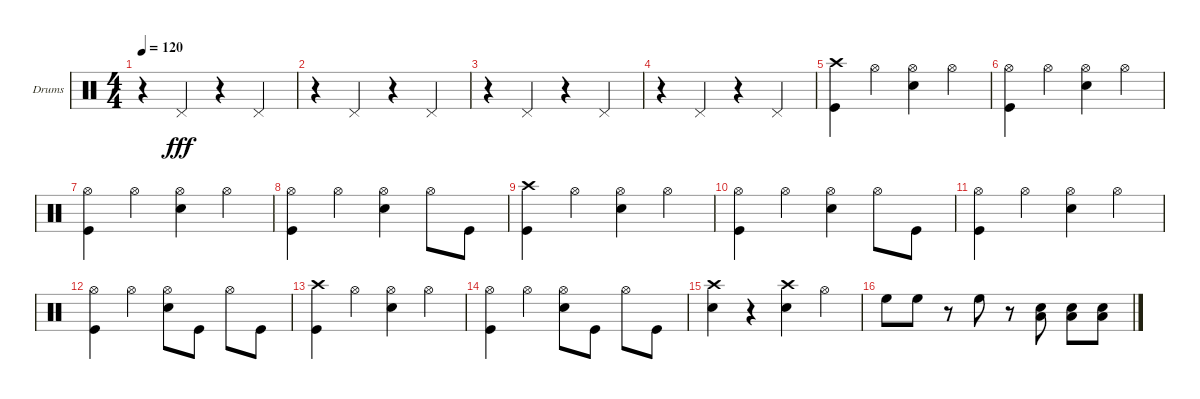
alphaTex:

\bracketExtendMode groupsimilarinstruments
\firstSystemTrackNameOrientation horizontal
\otherSystemsTrackNameOrientation horizontal
\track ("Drumkit" "Drums") {instrument percussion}
\staff {score}
\articulation defaults
\ts (4 4)
\tempo 120
\clef neutral
\ks c
r.4{dy fff} "Pedal Hi-Hat (hit)".4 r.4 "Pedal Hi-Hat (hit)".4 |
r.4 "Pedal Hi-Hat (hit)".4 r.4 "Pedal Hi-Hat (hit)".4 |
r.4 "Pedal Hi-Hat (hit)".4 r.4 "Pedal Hi-Hat (hit)".4 |
r.4 "Pedal Hi-Hat (hit)".4 r.4 "Pedal Hi-Hat (hit)".4 |
("Kick (hit)" "Crash high (hit)").4 "Hi-Hat (open)".4 ("Snare (hit) 2" "Hi-Hat (open)").4 "Hi-Hat (open)".4 |
("Kick (hit)" "Hi-Hat (open)").4 "Hi-Hat (open)".4 ("Snare (hit) 2" "Hi-Hat (open)").4 "Hi-Hat (open)".4 |
("Kick (hit)" "Hi-Hat (open)").4 "Hi-Hat (open)".4 ("Snare (hit) 2" "Hi-Hat (open)").4 "Hi-Hat (open)".4 |
("Kick (hit)" "Hi-Hat (open)").4 "Hi-Hat (open)".4 ("Snare (hit) 2" "Hi-Hat (open)").4 "Hi-Hat (open)".8 "Kick (hit)".8 |
("Crash high (hit)" "Kick (hit)").4 "Hi-Hat (open)".4 ("Snare (hit) 2" "Hi-Hat (open)").4 "Hi-Hat (open)".4 |
("Kick (hit)" "Hi-Hat (open)").4 "Hi-Hat (open)".4 ("Snare (hit) 2" "Hi-Hat (open)").4 "Hi-Hat (open)".8 "Kick (hit)".8 |
("Kick (hit)" "Hi-Hat (open)").4 "Hi-Hat (open)".4 ("Snare (hit) 2" "Hi-Hat (open)").4 "Hi-Hat (open)".4 |
("Kick (hit)" "Hi-Hat (open)").4 "Hi-Hat (open)".4 ("Snare (hit) 2" "Hi-Hat (open)").8 "Kick (hit)".8 "Hi-Hat (open)".8 "Kick (hit)".8 |
("Crash high (hit)" "Kick (hit)").4 "Hi-Hat (open)".4 ("Snare (hit) 2" "Hi-Hat (open)").4 "Hi-Hat (open)".4 |
("Kick (hit)" "Hi-Hat (open)").4 "Hi-Hat (open)".4 ("Snare (hit) 2" "Hi-Hat (open)").8 "Kick (hit)".8 "Hi-Hat (open)".8 "Kick (hit)".8 |
("Snare (hit) 2" "Crash high (hit)").4 r.4 ("Crash high (hit)" "Snare (hit) 2").4 "Hi-Hat (open)".4 |
"High Floor Tom (hit)".8 "High Floor Tom (hit)".8 r.8 "High Floor Tom (hit)".8 r.8 ("Snare (hit) 2" "Low Tom (hit)").8 ("Snare (hit) 2" "Low Tom (hit)").8 ("Snare (hit) 2" "Low Tom (hit)").8
